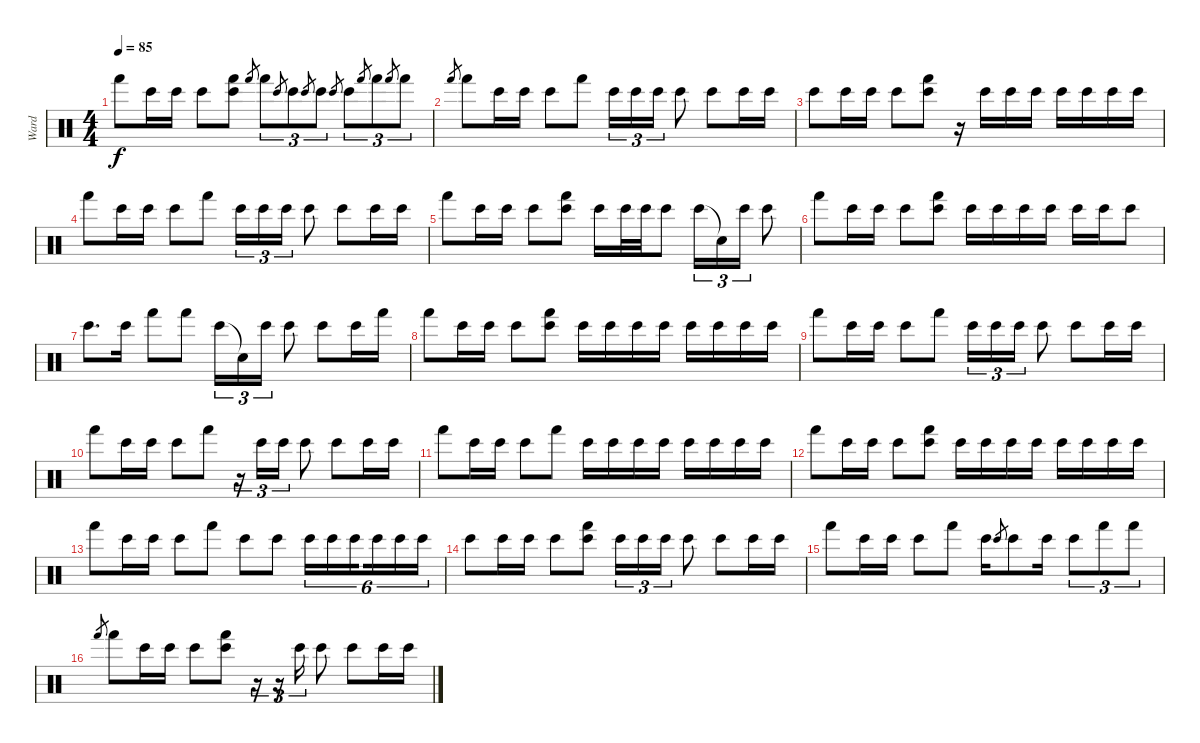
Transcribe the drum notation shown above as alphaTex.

\track ("Ward" "Ward") {instrument percussion}
\staff {score}
\articulation defaults
\ts (4 4)
\tempo 85
\clef neutral
\ks c "Hand (hit)".8{dy f} "Bongo High (hit)".16 "Bongo High (hit)".16 "Bongo High (hit)".8
("Bongo High (hit)" "Hand (hit)").8 "Hand (hit)".8{gr} "Hand (hit)".8{tu (3 2)} "Bongo High (hit)".8{gr} "Bongo High (hit)".8{tu (3 2)} "Bongo High (hit)".8{gr} "Bongo High (hit)".8{tu (3 2)} "Bongo High (hit)".8{gr} "Bongo High (hit)".8{tu (3 2)} "Hand (hit)".8{gr} "Hand (hit)".8{tu (3 2)} "Hand (hit)".8{gr} "Hand (hit)".8{tu (3 2)} |
"Hand (hit)".8{gr} "Hand (hit)".8 "Bongo High (hit)".16 "Bongo High (hit)".16 "Bongo High (hit)".8 "Hand (hit)".8 "Bongo High (hit)".16{tu (3 2)} "Bongo High (hit)".16{tu (3 2)} "Bongo High (hit)".16{tu (3 2)} "Bongo High (hit)".8 "Bongo High (hit)".8 "Bongo High (hit)".16 "Bongo High (hit)".16 |
"Bongo High (hit)".8 "Bongo High (hit)".16 "Bongo High (hit)".16 "Bongo High (hit)".8 ("Bongo High (hit)" "Hand (hit)").8 r.16 "Bongo High (hit)".16 "Bongo High (hit)".16 "Bongo High (hit)".16 "Bongo High (hit)".16 "Bongo High (hit)".16 "Bongo High (hit)".16 "Bongo High (hit)".16 |
"Hand (hit)".8 "Bongo High (hit)".16 "Bongo High (hit)".16 "Bongo High (hit)".8 "Hand (hit)".8 "Bongo High (hit)".16{tu (3 2)} "Bongo High (hit)".16{tu (3 2)} "Bongo High (hit)".16{tu (3 2)} "Bongo High (hit)".8 "Bongo High (hit)".8 "Bongo High (hit)".16 "Bongo High (hit)".16 |
"Hand (hit)".8 "Bongo High (hit)".16 "Bongo High (hit)".16 "Bongo High (hit)".8 ("Bongo High (hit)" "Hand (hit)").8 "Bongo High (hit)".16 "Bongo High (hit)".32 "Bongo High (hit)".32 "Bongo High (hit)".8 "Bongo High (hit)".16{tu (3 2)} "Snare (hit)"{t}.16{tu (3 2)} "Bongo High (hit)".16{tu (3 2)} "Bongo High (hit)".8 |
"Hand (hit)".8 "Bongo High (hit)".16 "Bongo High (hit)".16 "Bongo High (hit)".8 ("Bongo High (hit)" "Hand (hit)").8 "Bongo High (hit)".16 "Bongo High (hit)".16 "Bongo High (hit)".16 "Bongo High (hit)".16 "Bongo High (hit)".16 "Bongo High (hit)".16 "Bongo High (hit)".8 |
"Bongo High (hit)".8{d} "Bongo High (hit)".16 "Hand (hit)".8 "Hand (hit)".8 "Bongo High (hit)".16{tu (3 2)} "Snare (hit)"{t}.16{tu (3 2)} "Bongo High (hit)".16{tu (3 2)} "Bongo High (hit)".8 "Bongo High (hit)".8 "Bongo High (hit)".16 "Hand (hit)".16 |
"Hand (hit)".8 "Bongo High (hit)".16 "Bongo High (hit)".16 "Bongo High (hit)".8 ("Bongo High (hit)" "Hand (hit)").8 "Bongo High (hit)".16 "Bongo High (hit)".16 "Bongo High (hit)".16 "Bongo High (hit)".16 "Bongo High (hit)".16 "Bongo High (hit)".16 "Bongo High (hit)".16 "Bongo High (hit)".16 |
"Hand (hit)".8 "Bongo High (hit)".16 "Bongo High (hit)".16 "Bongo High (hit)".8 "Hand (hit)".8 "Bongo High (hit)".16{tu (3 2)} "Bongo High (hit)".16{tu (3 2)} "Bongo High (hit)".16{tu (3 2)} "Bongo High (hit)".8 "Bongo High (hit)".8 "Bongo High (hit)".16 "Bongo High (hit)".16 |
"Hand (hit)".8 "Bongo High (hit)".16 "Bongo High (hit)".16 "Bongo High (hit)".8 "Hand (hit)".8 r.16{tu (3 2)} "Bongo High (hit)".16{tu (3 2)} "Bongo High (hit)".16{tu (3 2)} "Bongo High (hit)".8 "Bongo High (hit)".8 "Bongo High (hit)".16 "Bongo High (hit)".16 |
"Hand (hit)".8 "Bongo High (hit)".16 "Bongo High (hit)".16 "Bongo High (hit)".8 "Hand (hit)".8 "Bongo High (hit)".16 "Bongo High (hit)".16 "Bongo High (hit)".16 "Bongo High (hit)".16 "Bongo High (hit)".16 "Bongo High (hit)".16 "Bongo High (hit)".16 "Bongo High (hit)".16 |
"Hand (hit)".8 "Bongo High (hit)".16 "Bongo High (hit)".16 "Bongo High (hit)".8 ("Bongo High (hit)" "Hand (hit)").8 "Bongo High (hit)".16 "Bongo High (hit)".16 "Bongo High (hit)".16 "Bongo High (hit)".16 "Bongo High (hit)".16 "Bongo High (hit)".16 "Bongo High (hit)".16 "Bongo High (hit)".16 |
"Hand (hit)".8 "Bongo High (hit)".16 "Bongo High (hit)".16 "Bongo High (hit)".8 "Hand (hit)".8 "Bongo High (hit)".8 "Bongo High (hit)".8 "Bongo High (hit)".16{tu (6 4)} "Bongo High (hit)".16{tu (6 4)} "Bongo High (hit)".16{tu (6 4) beam splitsecondary} "Bongo High (hit)".16{tu (6 4)} "Bongo High (hit)".16{tu (6 4)} "Bongo High (hit)".16{tu (6 4)} |
"Bongo High (hit)".8 "Bongo High (hit)".16 "Bongo High (hit)".16 "Bongo High (hit)".8 ("Bongo High (hit)" "Hand (hit)").8 "Bongo High (hit)".16{tu (3 2)} "Bongo High (hit)".16{tu (3 2)} "Bongo High (hit)".16{tu (3 2)} "Bongo High (hit)".8 "Bongo High (hit)".8 "Bongo High (hit)".16 "Bongo High (hit)".16 |
"Hand (hit)".8 "Bongo High (hit)".16 "Bongo High (hit)".16 "Bongo High (hit)".8 "Hand (hit)".8 "Bongo High (hit)".16 "Bongo High (hit)".8{gr} "Bongo High (hit)".8 "Bongo High (hit)".16 "Bongo High (hit)".8{tu (3 2)} "Hand (hit)".8{tu (3 2)} "Hand (hit)".8{tu (3 2)} |
"Hand (hit)".8{gr} "Hand (hit)".8{volume 8} "Bongo High (hit)".16 "Bongo High (hit)".16 "Bongo High (hit)".8 ("Bongo High (hit)" "Hand (hit)").8 r.16{tu (3 2)} r.16{tu (3 2)} "Bongo High (hit)".16{tu (3 2)} "Bongo High (hit)".8 "Bongo High (hit)".8 "Bongo High (hit)".16 "Bongo High (hit)".16
